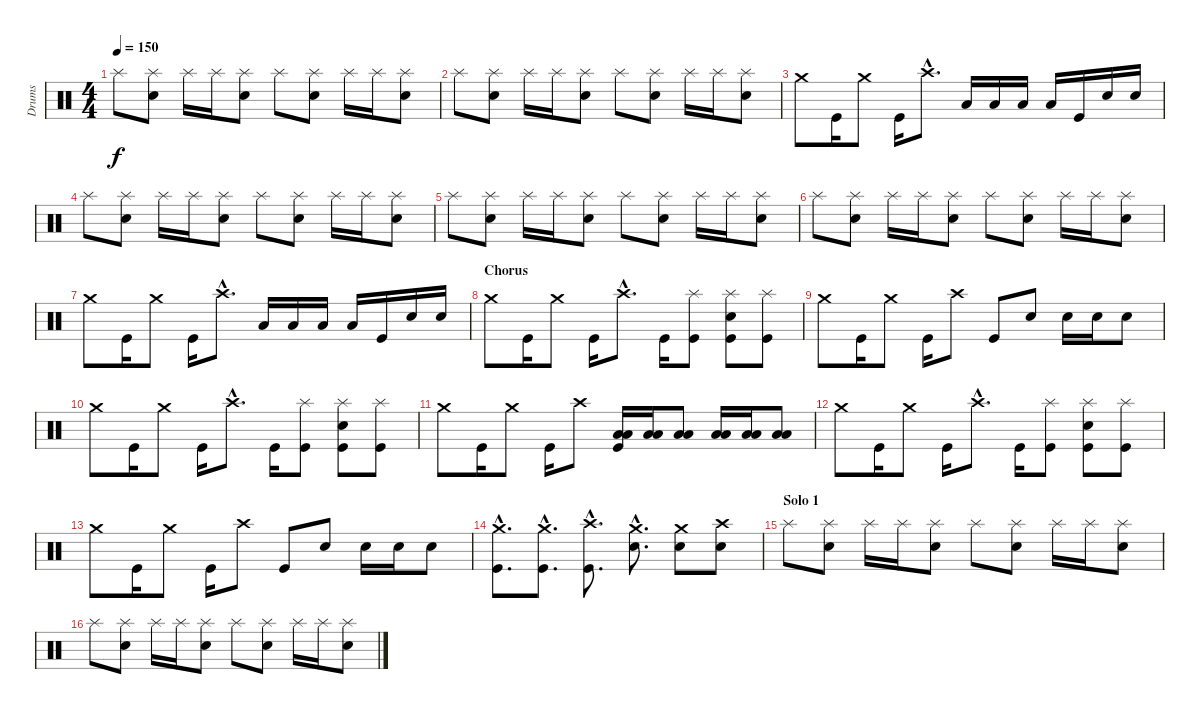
\track ("Drums" "Drums") {instrument percussion}
\staff {score}
\articulation defaults
\ts (4 4)
\tempo 150
\clef neutral
\ks c "Splash (hit)".8{dy f}
("Splash (hit)" "Snare (hit) 2").8 "Splash (hit)".16 "Splash (hit)".16 ("Splash (hit)" "Snare (hit) 2").8 "Splash (hit)".8 ("Splash (hit)" "Snare (hit) 2").8 "Splash (hit)".16 "Splash (hit)".16 ("Splash (hit)" "Snare (hit) 2").8 |
"Splash (hit)".8 ("Splash (hit)" "Snare (hit) 2").8 "Splash (hit)".16 "Splash (hit)".16 ("Splash (hit)" "Snare (hit) 2").8 "Splash (hit)".8 ("Splash (hit)" "Snare (hit) 2").8 "Splash (hit)".16 "Splash (hit)".16 ("Splash (hit)" "Snare (hit) 2").8 |
"Crash medium (hit)".8 "Kick (hit)".16 "Crash medium (hit)".8 "Kick (hit)".16 "Crash high (hit)"{hac}.8{d} "Low Tom (hit)".16 "Low Tom (hit)".16 "Low Tom (hit)".16 "Low Tom (hit)".16 "Kick (hit)".16 "Snare (hit) 2".16 "Snare (hit) 2".16 |
"Splash (hit)".8 ("Splash (hit)" "Snare (hit) 2").8 "Splash (hit)".16 "Splash (hit)".16 ("Splash (hit)" "Snare (hit) 2").8 "Splash (hit)".8 ("Splash (hit)" "Snare (hit) 2").8 "Splash (hit)".16 "Splash (hit)".16 ("Splash (hit)" "Snare (hit) 2").8 |
"Splash (hit)".8 ("Splash (hit)" "Snare (hit) 2").8 "Splash (hit)".16 "Splash (hit)".16 ("Splash (hit)" "Snare (hit) 2").8 "Splash (hit)".8 ("Splash (hit)" "Snare (hit) 2").8 "Splash (hit)".16 "Splash (hit)".16 ("Splash (hit)" "Snare (hit) 2").8 |
"Splash (hit)".8 ("Splash (hit)" "Snare (hit) 2").8 "Splash (hit)".16 "Splash (hit)".16 ("Splash (hit)" "Snare (hit) 2").8 "Splash (hit)".8 ("Splash (hit)" "Snare (hit) 2").8 "Splash (hit)".16 "Splash (hit)".16 ("Splash (hit)" "Snare (hit) 2").8 |
"Crash medium (hit)".8 "Kick (hit)".16 "Crash medium (hit)".8 "Kick (hit)".16 "Crash high (hit)"{hac}.8{d} "Low Tom (hit)".16 "Low Tom (hit)".16 "Low Tom (hit)".16 "Low Tom (hit)".16 "Kick (hit)".16 "Snare (hit) 2".16 "Snare (hit) 2".16 |
\section ("" "Chorus")
"Crash medium (hit)".8 "Kick (hit)".16 "Crash medium (hit)".8 "Kick (hit)".16 "Crash high (hit)"{hac}.8{d} "Kick (hit)".16 ("Splash (hit)" "Kick (hit)").8 ("Splash (hit)" "Snare (hit) 2" "Kick (hit)").8 ("Splash (hit)" "Kick (hit)").8 |
"Crash medium (hit)".8 "Kick (hit)".16 "Crash medium (hit)".8 "Kick (hit)".16 "Crash high (hit)".8 "Kick (hit)".8 "Snare (hit) 2".8 "Snare (hit) 2".16 "Snare (hit) 2".16 "Snare (hit) 2".8 |
"Crash medium (hit)".8 "Kick (hit)".16 "Crash medium (hit)".8 "Kick (hit)".16 "Crash high (hit)"{hac}.8{d} "Kick (hit)".16 ("Splash (hit)" "Kick (hit)").8 ("Splash (hit)" "Snare (hit) 2" "Kick (hit)").8 ("Splash (hit)" "Kick (hit)").8 |
"Crash medium (hit)".8 "Kick (hit)".16 "Crash medium (hit)".8 "Kick (hit)".16 "Crash high (hit)".8 ("Low Tom (hit)" "Low Tom (hit)" "Kick (hit)").16 ("Low Tom (hit)" "Low Tom (hit)").16 ("Low Tom (hit)" "Low Tom (hit)").8 ("Low Tom (hit)" "Low Tom (hit)").16 ("Low Tom (hit)" "Low Tom (hit)").16 ("Low Tom (hit)" "Low Tom (hit)").8 |
"Crash medium (hit)".8 "Kick (hit)".16 "Crash medium (hit)".8 "Kick (hit)".16 "Crash high (hit)"{hac}.8{d} "Kick (hit)".16 ("Splash (hit)" "Kick (hit)").8 ("Splash (hit)" "Snare (hit) 2" "Kick (hit)").8 ("Splash (hit)" "Kick (hit)").8 |
"Crash medium (hit)".8 "Kick (hit)".16 "Crash medium (hit)".8 "Kick (hit)".16 "Crash high (hit)".8 "Kick (hit)".8 "Snare (hit) 2".8 "Snare (hit) 2".16 "Snare (hit) 2".16 "Snare (hit) 2".8 |
("Crash medium (hit)"{hac} "Kick (hit)"{hac}).8{d} ("Crash medium (hit)"{hac} "Kick (hit)"{hac}).8{d} ("Crash high (hit)"{hac} "Kick (hit)"{hac}).8{d} ("Crash medium (hit)"{hac} "Electric Snare (hit)"{hac}).8{d} ("Crash medium (hit)" "Electric Snare (hit)").8 ("Crash high (hit)" "Electric Snare (hit)").8 |
\section ("" "Solo 1")
"Splash (hit)".8 ("Splash (hit)" "Snare (hit) 2").8 "Splash (hit)".16 "Splash (hit)".16 ("Splash (hit)" "Snare (hit) 2").8 "Splash (hit)".8 ("Splash (hit)" "Snare (hit) 2").8 "Splash (hit)".16 "Splash (hit)".16 ("Splash (hit)" "Snare (hit) 2").8 |
"Splash (hit)".8 ("Splash (hit)" "Snare (hit) 2").8 "Splash (hit)".16 "Splash (hit)".16 ("Splash (hit)" "Snare (hit) 2").8 "Splash (hit)".8 ("Splash (hit)" "Snare (hit) 2").8 "Splash (hit)".16 "Splash (hit)".16 ("Splash (hit)" "Snare (hit) 2").8
